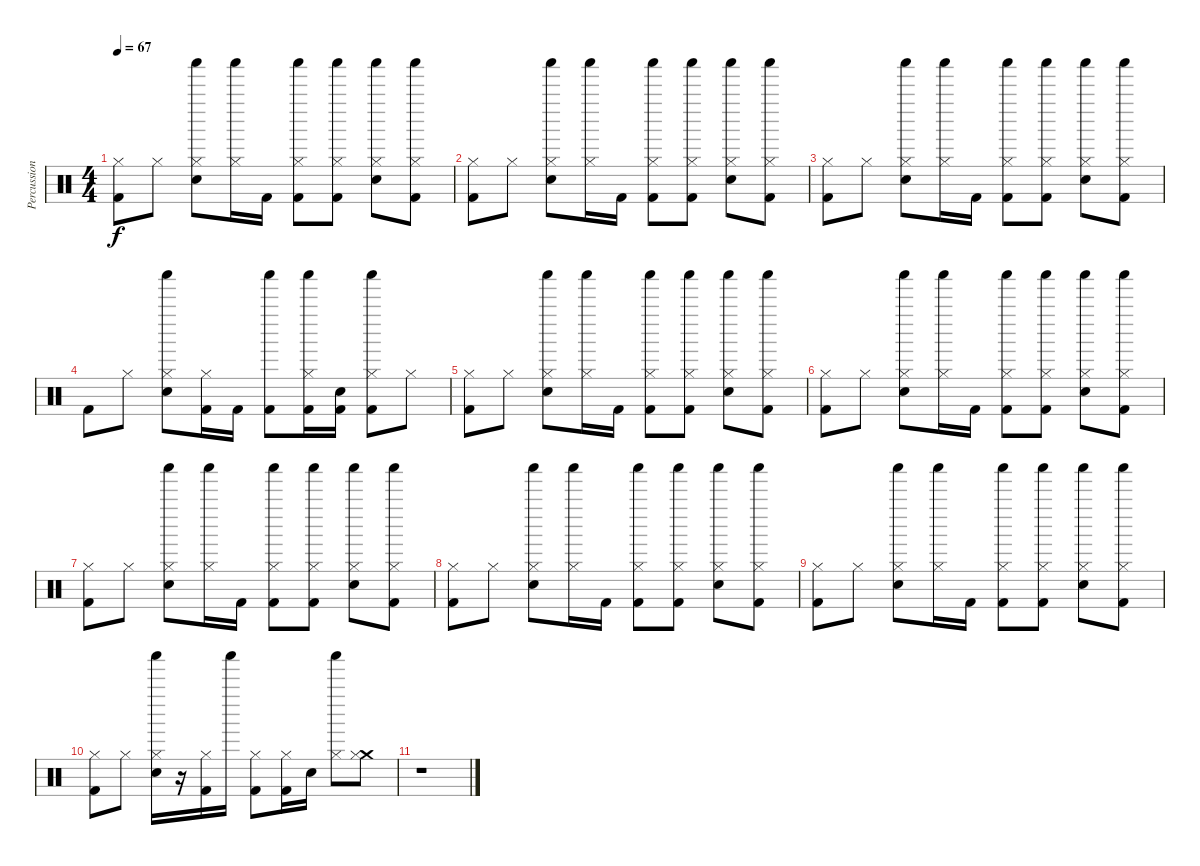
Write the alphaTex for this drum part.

\track ("Percussion" "Percussion") {instrument percussion}
\staff {score}
\articulation defaults
\ts (4 4)
\tempo 67
\clef neutral
\ks c
("Kick (hit) 2" "Hi-Hat (closed)").8{dy f} "Hi-Hat (closed)".8 ("Snare (hit) 2" "Shaker (hit)" "Hi-Hat (closed)").8 ("Shaker (hit)" "Hi-Hat (closed)").16 "Kick (hit) 2".16 ("Kick (hit) 2" "Shaker (hit)" "Hi-Hat (closed)").8 ("Kick (hit) 2" "Shaker (hit)" "Hi-Hat (closed)").8 ("Snare (hit) 2" "Shaker (hit)" "Hi-Hat (closed)").8 ("Kick (hit) 2" "Shaker (hit)" "Hi-Hat (closed)").8 |
("Kick (hit) 2" "Hi-Hat (closed)").8 "Hi-Hat (closed)".8 ("Snare (hit) 2" "Shaker (hit)" "Hi-Hat (closed)").8 ("Shaker (hit)" "Hi-Hat (closed)").16 "Kick (hit) 2".16 ("Kick (hit) 2" "Shaker (hit)" "Hi-Hat (closed)").8 ("Kick (hit) 2" "Shaker (hit)" "Hi-Hat (closed)").8 ("Snare (hit) 2" "Shaker (hit)" "Hi-Hat (closed)").8 ("Kick (hit) 2" "Shaker (hit)" "Hi-Hat (closed)").8 |
("Kick (hit) 2" "Hi-Hat (closed)").8 "Hi-Hat (closed)".8 ("Snare (hit) 2" "Shaker (hit)" "Hi-Hat (closed)").8 ("Shaker (hit)" "Hi-Hat (closed)").16 "Kick (hit) 2".16 ("Kick (hit) 2" "Shaker (hit)" "Hi-Hat (closed)").8 ("Kick (hit) 2" "Shaker (hit)" "Hi-Hat (closed)").8 ("Snare (hit) 2" "Shaker (hit)" "Hi-Hat (closed)").8 ("Kick (hit) 2" "Shaker (hit)" "Hi-Hat (closed)").8 |
"Kick (hit) 2".8 "Hi-Hat (closed)".8 ("Snare (hit) 2" "Shaker (hit)" "Hi-Hat (closed)").8 ("Kick (hit) 2" "Hi-Hat (closed)").16 "Kick (hit) 2".16 ("Kick (hit) 2" "Shaker (hit)").8 ("Kick (hit) 2" "Shaker (hit)" "Hi-Hat (closed)").16 ("Snare (hit) 2" "Kick (hit) 2").16 ("Kick (hit) 2" "Shaker (hit)" "Hi-Hat (closed)").8 "Hi-Hat (closed)".8 |
("Kick (hit) 2" "Hi-Hat (closed)").8 "Hi-Hat (closed)".8 ("Snare (hit) 2" "Shaker (hit)" "Hi-Hat (closed)").8 ("Shaker (hit)" "Hi-Hat (closed)").16 "Kick (hit) 2".16 ("Kick (hit) 2" "Shaker (hit)" "Hi-Hat (closed)").8 ("Kick (hit) 2" "Shaker (hit)" "Hi-Hat (closed)").8 ("Snare (hit) 2" "Shaker (hit)" "Hi-Hat (closed)").8 ("Kick (hit) 2" "Shaker (hit)" "Hi-Hat (closed)").8 |
("Kick (hit) 2" "Hi-Hat (closed)").8 "Hi-Hat (closed)".8 ("Snare (hit) 2" "Shaker (hit)" "Hi-Hat (closed)").8 ("Shaker (hit)" "Hi-Hat (closed)").16 "Kick (hit) 2".16 ("Kick (hit) 2" "Shaker (hit)" "Hi-Hat (closed)").8 ("Kick (hit) 2" "Shaker (hit)" "Hi-Hat (closed)").8 ("Snare (hit) 2" "Shaker (hit)" "Hi-Hat (closed)").8 ("Kick (hit) 2" "Shaker (hit)" "Hi-Hat (closed)").8 |
("Kick (hit) 2" "Hi-Hat (closed)").8 "Hi-Hat (closed)".8 ("Snare (hit) 2" "Shaker (hit)" "Hi-Hat (closed)").8 ("Shaker (hit)" "Hi-Hat (closed)").16 "Kick (hit) 2".16 ("Kick (hit) 2" "Shaker (hit)" "Hi-Hat (closed)").8 ("Kick (hit) 2" "Shaker (hit)" "Hi-Hat (closed)").8 ("Snare (hit) 2" "Shaker (hit)" "Hi-Hat (closed)").8 ("Kick (hit) 2" "Shaker (hit)" "Hi-Hat (closed)").8 |
("Kick (hit) 2" "Hi-Hat (closed)").8 "Hi-Hat (closed)".8 ("Snare (hit) 2" "Shaker (hit)" "Hi-Hat (closed)").8 ("Shaker (hit)" "Hi-Hat (closed)").16 "Kick (hit) 2".16 ("Kick (hit) 2" "Shaker (hit)" "Hi-Hat (closed)").8 ("Kick (hit) 2" "Shaker (hit)" "Hi-Hat (closed)").8 ("Snare (hit) 2" "Shaker (hit)" "Hi-Hat (closed)").8 ("Kick (hit) 2" "Shaker (hit)" "Hi-Hat (closed)").8 |
("Kick (hit) 2" "Hi-Hat (closed)").8 "Hi-Hat (closed)".8 ("Snare (hit) 2" "Shaker (hit)" "Hi-Hat (closed)").8 ("Shaker (hit)" "Hi-Hat (closed)").16 "Kick (hit) 2".16 ("Kick (hit) 2" "Shaker (hit)" "Hi-Hat (closed)").8 ("Kick (hit) 2" "Shaker (hit)" "Hi-Hat (closed)").8 ("Snare (hit) 2" "Shaker (hit)" "Hi-Hat (closed)").8 ("Kick (hit) 2" "Shaker (hit)" "Hi-Hat (closed)").8 |
("Kick (hit) 2" "Hi-Hat (closed)").8 "Hi-Hat (closed)".8 ("Snare (hit) 2" "Shaker (hit)" "Hi-Hat (closed)").16 r.16 ("Kick (hit) 2" "Hi-Hat (closed)").16 "Shaker (hit)".16 ("Kick (hit) 2" "Hi-Hat (closed)").8 ("Kick (hit) 2" "Hi-Hat (closed)").16 "Snare (hit) 2".16 ("Shaker (hit)" "Hi-Hat (closed)").8 ("Crash medium (hit)" "Hi-Hat (closed)").8 |
r.1
